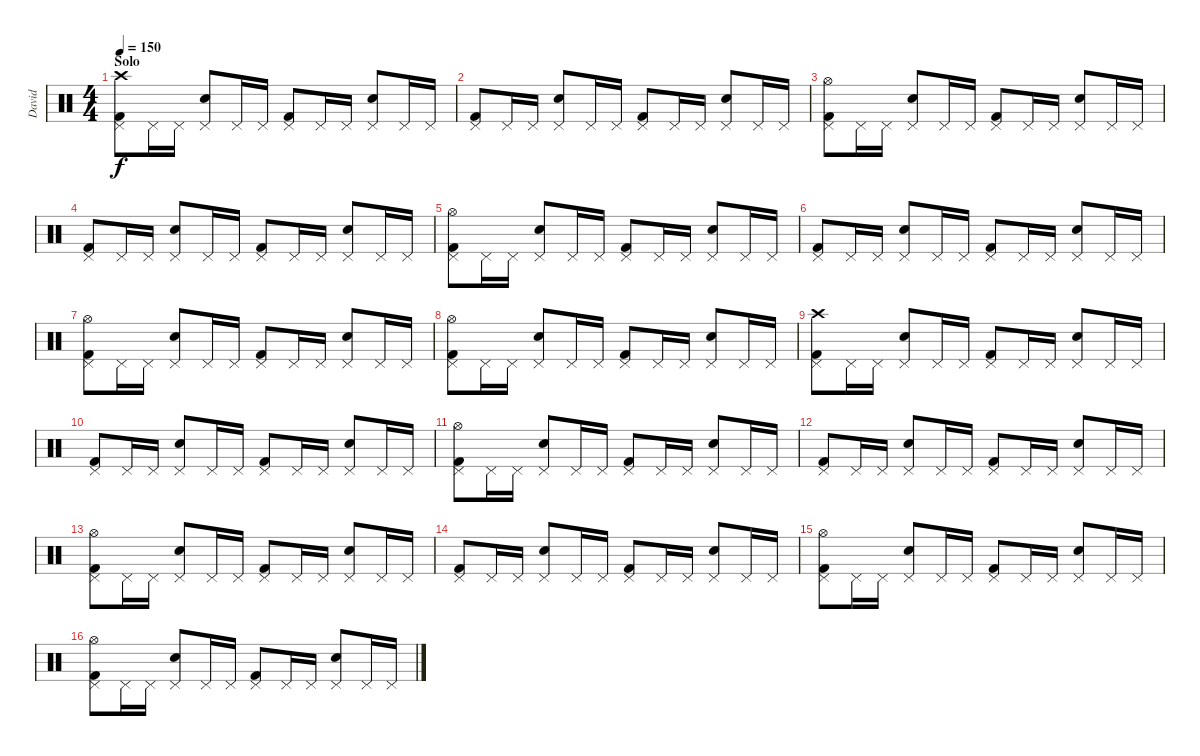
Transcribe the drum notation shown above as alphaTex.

\track ("David" "David") {instrument percussion}
\staff {score}
\articulation defaults
\ts (4 4)
\section ("" "Solo")
\tempo 150
\clef neutral
\ks c
("Kick (hit) 2" "Pedal Hi-Hat (hit)" "Crash high (hit)").8{dy f} "Pedal Hi-Hat (hit)".16 "Pedal Hi-Hat (hit)".16 ("Snare (hit) 2" "Pedal Hi-Hat (hit)").8 "Pedal Hi-Hat (hit)".16 "Pedal Hi-Hat (hit)".16 ("Kick (hit) 2" "Pedal Hi-Hat (hit)").8 "Pedal Hi-Hat (hit)".16 "Pedal Hi-Hat (hit)".16 ("Snare (hit) 2" "Pedal Hi-Hat (hit)").8 "Pedal Hi-Hat (hit)".16 "Pedal Hi-Hat (hit)".16 |
("Kick (hit) 2" "Pedal Hi-Hat (hit)").8 "Pedal Hi-Hat (hit)".16 "Pedal Hi-Hat (hit)".16 ("Snare (hit) 2" "Pedal Hi-Hat (hit)").8 "Pedal Hi-Hat (hit)".16 "Pedal Hi-Hat (hit)".16 ("Kick (hit) 2" "Pedal Hi-Hat (hit)").8 "Pedal Hi-Hat (hit)".16 "Pedal Hi-Hat (hit)".16 ("Snare (hit) 2" "Pedal Hi-Hat (hit)").8 "Pedal Hi-Hat (hit)".16 "Pedal Hi-Hat (hit)".16 |
("Kick (hit) 2" "Pedal Hi-Hat (hit)" "Hi-Hat (open)").8 "Pedal Hi-Hat (hit)".16 "Pedal Hi-Hat (hit)".16 ("Snare (hit) 2" "Pedal Hi-Hat (hit)").8 "Pedal Hi-Hat (hit)".16 "Pedal Hi-Hat (hit)".16 ("Kick (hit) 2" "Pedal Hi-Hat (hit)").8 "Pedal Hi-Hat (hit)".16 "Pedal Hi-Hat (hit)".16 ("Snare (hit) 2" "Pedal Hi-Hat (hit)").8 "Pedal Hi-Hat (hit)".16 "Pedal Hi-Hat (hit)".16 |
("Kick (hit) 2" "Pedal Hi-Hat (hit)").8 "Pedal Hi-Hat (hit)".16 "Pedal Hi-Hat (hit)".16 ("Snare (hit) 2" "Pedal Hi-Hat (hit)").8 "Pedal Hi-Hat (hit)".16 "Pedal Hi-Hat (hit)".16 ("Kick (hit) 2" "Pedal Hi-Hat (hit)").8 "Pedal Hi-Hat (hit)".16 "Pedal Hi-Hat (hit)".16 ("Snare (hit) 2" "Pedal Hi-Hat (hit)").8 "Pedal Hi-Hat (hit)".16 "Pedal Hi-Hat (hit)".16 |
("Kick (hit) 2" "Pedal Hi-Hat (hit)" "Hi-Hat (open)").8 "Pedal Hi-Hat (hit)".16 "Pedal Hi-Hat (hit)".16 ("Snare (hit) 2" "Pedal Hi-Hat (hit)").8 "Pedal Hi-Hat (hit)".16 "Pedal Hi-Hat (hit)".16 ("Kick (hit) 2" "Pedal Hi-Hat (hit)").8 "Pedal Hi-Hat (hit)".16 "Pedal Hi-Hat (hit)".16 ("Snare (hit) 2" "Pedal Hi-Hat (hit)").8 "Pedal Hi-Hat (hit)".16 "Pedal Hi-Hat (hit)".16 |
("Kick (hit) 2" "Pedal Hi-Hat (hit)").8 "Pedal Hi-Hat (hit)".16 "Pedal Hi-Hat (hit)".16 ("Snare (hit) 2" "Pedal Hi-Hat (hit)").8 "Pedal Hi-Hat (hit)".16 "Pedal Hi-Hat (hit)".16 ("Kick (hit) 2" "Pedal Hi-Hat (hit)").8 "Pedal Hi-Hat (hit)".16 "Pedal Hi-Hat (hit)".16 ("Snare (hit) 2" "Pedal Hi-Hat (hit)").8 "Pedal Hi-Hat (hit)".16 "Pedal Hi-Hat (hit)".16 |
("Kick (hit) 2" "Pedal Hi-Hat (hit)" "Hi-Hat (open)").8 "Pedal Hi-Hat (hit)".16 "Pedal Hi-Hat (hit)".16 ("Snare (hit) 2" "Pedal Hi-Hat (hit)").8 "Pedal Hi-Hat (hit)".16 "Pedal Hi-Hat (hit)".16 ("Kick (hit) 2" "Pedal Hi-Hat (hit)").8 "Pedal Hi-Hat (hit)".16 "Pedal Hi-Hat (hit)".16 ("Snare (hit) 2" "Pedal Hi-Hat (hit)").8 "Pedal Hi-Hat (hit)".16 "Pedal Hi-Hat (hit)".16 |
("Kick (hit) 2" "Pedal Hi-Hat (hit)" "Hi-Hat (open)").8 "Pedal Hi-Hat (hit)".16 "Pedal Hi-Hat (hit)".16 ("Snare (hit) 2" "Pedal Hi-Hat (hit)").8 "Pedal Hi-Hat (hit)".16 "Pedal Hi-Hat (hit)".16 ("Kick (hit) 2" "Pedal Hi-Hat (hit)").8 "Pedal Hi-Hat (hit)".16 "Pedal Hi-Hat (hit)".16 ("Snare (hit) 2" "Pedal Hi-Hat (hit)").8 "Pedal Hi-Hat (hit)".16 "Pedal Hi-Hat (hit)".16 |
("Kick (hit) 2" "Pedal Hi-Hat (hit)" "Crash high (hit)").8 "Pedal Hi-Hat (hit)".16 "Pedal Hi-Hat (hit)".16 ("Snare (hit) 2" "Pedal Hi-Hat (hit)").8 "Pedal Hi-Hat (hit)".16 "Pedal Hi-Hat (hit)".16 ("Kick (hit) 2" "Pedal Hi-Hat (hit)").8 "Pedal Hi-Hat (hit)".16 "Pedal Hi-Hat (hit)".16 ("Snare (hit) 2" "Pedal Hi-Hat (hit)").8 "Pedal Hi-Hat (hit)".16 "Pedal Hi-Hat (hit)".16 |
("Kick (hit) 2" "Pedal Hi-Hat (hit)").8 "Pedal Hi-Hat (hit)".16 "Pedal Hi-Hat (hit)".16 ("Snare (hit) 2" "Pedal Hi-Hat (hit)").8 "Pedal Hi-Hat (hit)".16 "Pedal Hi-Hat (hit)".16 ("Kick (hit) 2" "Pedal Hi-Hat (hit)").8 "Pedal Hi-Hat (hit)".16 "Pedal Hi-Hat (hit)".16 ("Snare (hit) 2" "Pedal Hi-Hat (hit)").8 "Pedal Hi-Hat (hit)".16 "Pedal Hi-Hat (hit)".16 |
("Kick (hit) 2" "Pedal Hi-Hat (hit)" "Hi-Hat (open)").8 "Pedal Hi-Hat (hit)".16 "Pedal Hi-Hat (hit)".16 ("Snare (hit) 2" "Pedal Hi-Hat (hit)").8 "Pedal Hi-Hat (hit)".16 "Pedal Hi-Hat (hit)".16 ("Kick (hit) 2" "Pedal Hi-Hat (hit)").8 "Pedal Hi-Hat (hit)".16 "Pedal Hi-Hat (hit)".16 ("Snare (hit) 2" "Pedal Hi-Hat (hit)").8 "Pedal Hi-Hat (hit)".16 "Pedal Hi-Hat (hit)".16 |
("Kick (hit) 2" "Pedal Hi-Hat (hit)").8 "Pedal Hi-Hat (hit)".16 "Pedal Hi-Hat (hit)".16 ("Snare (hit) 2" "Pedal Hi-Hat (hit)").8 "Pedal Hi-Hat (hit)".16 "Pedal Hi-Hat (hit)".16 ("Kick (hit) 2" "Pedal Hi-Hat (hit)").8 "Pedal Hi-Hat (hit)".16 "Pedal Hi-Hat (hit)".16 ("Snare (hit) 2" "Pedal Hi-Hat (hit)").8 "Pedal Hi-Hat (hit)".16 "Pedal Hi-Hat (hit)".16 |
("Kick (hit) 2" "Pedal Hi-Hat (hit)" "Hi-Hat (open)").8 "Pedal Hi-Hat (hit)".16 "Pedal Hi-Hat (hit)".16 ("Snare (hit) 2" "Pedal Hi-Hat (hit)").8 "Pedal Hi-Hat (hit)".16 "Pedal Hi-Hat (hit)".16 ("Kick (hit) 2" "Pedal Hi-Hat (hit)").8 "Pedal Hi-Hat (hit)".16 "Pedal Hi-Hat (hit)".16 ("Snare (hit) 2" "Pedal Hi-Hat (hit)").8 "Pedal Hi-Hat (hit)".16 "Pedal Hi-Hat (hit)".16 |
("Kick (hit) 2" "Pedal Hi-Hat (hit)").8 "Pedal Hi-Hat (hit)".16 "Pedal Hi-Hat (hit)".16 ("Snare (hit) 2" "Pedal Hi-Hat (hit)").8 "Pedal Hi-Hat (hit)".16 "Pedal Hi-Hat (hit)".16 ("Kick (hit) 2" "Pedal Hi-Hat (hit)").8 "Pedal Hi-Hat (hit)".16 "Pedal Hi-Hat (hit)".16 ("Snare (hit) 2" "Pedal Hi-Hat (hit)").8 "Pedal Hi-Hat (hit)".16 "Pedal Hi-Hat (hit)".16 |
("Kick (hit) 2" "Pedal Hi-Hat (hit)" "Hi-Hat (open)").8 "Pedal Hi-Hat (hit)".16 "Pedal Hi-Hat (hit)".16 ("Snare (hit) 2" "Pedal Hi-Hat (hit)").8 "Pedal Hi-Hat (hit)".16 "Pedal Hi-Hat (hit)".16 ("Kick (hit) 2" "Pedal Hi-Hat (hit)").8 "Pedal Hi-Hat (hit)".16 "Pedal Hi-Hat (hit)".16 ("Snare (hit) 2" "Pedal Hi-Hat (hit)").8 "Pedal Hi-Hat (hit)".16 "Pedal Hi-Hat (hit)".16 |
("Kick (hit) 2" "Pedal Hi-Hat (hit)" "Hi-Hat (open)").8 "Pedal Hi-Hat (hit)".16 "Pedal Hi-Hat (hit)".16 ("Snare (hit) 2" "Pedal Hi-Hat (hit)").8 "Pedal Hi-Hat (hit)".16 "Pedal Hi-Hat (hit)".16 ("Kick (hit) 2" "Pedal Hi-Hat (hit)").8 "Pedal Hi-Hat (hit)".16 "Pedal Hi-Hat (hit)".16 ("Snare (hit) 2" "Pedal Hi-Hat (hit)").8 "Pedal Hi-Hat (hit)".16 "Pedal Hi-Hat (hit)".16
